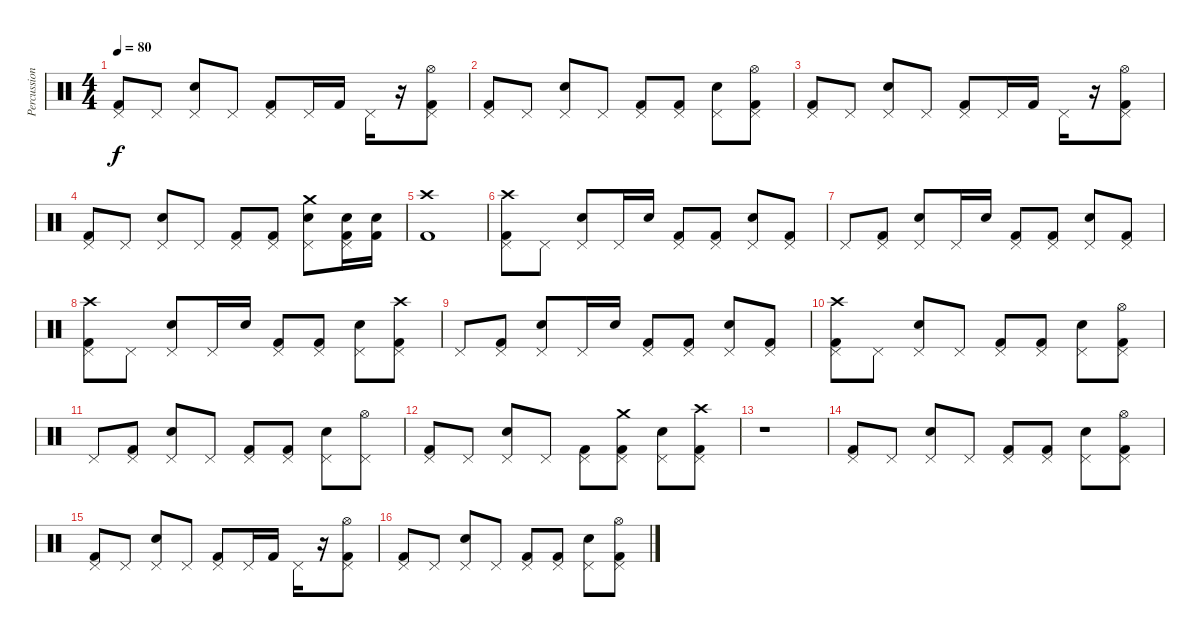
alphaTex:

\track ("Percussion" "Percussion") {instrument percussion}
\staff {score}
\articulation defaults
\ts (4 4)
\tempo 80
\clef neutral
\ks c
("Pedal Hi-Hat (hit)" "Kick (hit) 2").8{dy f} "Pedal Hi-Hat (hit)".8 ("Pedal Hi-Hat (hit)" "Electric Snare (hit)").8 "Pedal Hi-Hat (hit)".8 ("Pedal Hi-Hat (hit)" "Kick (hit) 2").8 "Pedal Hi-Hat (hit)".16 "Kick (hit) 2".16 "Pedal Hi-Hat (hit)".16 r.16 ("Pedal Hi-Hat (hit)" "Hi-Hat (open)" "Kick (hit) 2").8 |
("Pedal Hi-Hat (hit)" "Kick (hit) 2").8 "Pedal Hi-Hat (hit)".8 ("Pedal Hi-Hat (hit)" "Electric Snare (hit)").8 "Pedal Hi-Hat (hit)".8 ("Pedal Hi-Hat (hit)" "Kick (hit) 2").8 ("Pedal Hi-Hat (hit)" "Kick (hit) 2").8 ("Pedal Hi-Hat (hit)" "Electric Snare (hit)").8 ("Pedal Hi-Hat (hit)" "Hi-Hat (open)" "Kick (hit) 2").8 |
("Pedal Hi-Hat (hit)" "Kick (hit) 2").8 "Pedal Hi-Hat (hit)".8 ("Pedal Hi-Hat (hit)" "Electric Snare (hit)").8 "Pedal Hi-Hat (hit)".8 ("Pedal Hi-Hat (hit)" "Kick (hit) 2").8 "Pedal Hi-Hat (hit)".16 "Kick (hit) 2".16 "Pedal Hi-Hat (hit)".16 r.16 ("Pedal Hi-Hat (hit)" "Hi-Hat (open)" "Kick (hit) 2").8 |
("Pedal Hi-Hat (hit)" "Kick (hit) 2").8 "Pedal Hi-Hat (hit)".8 ("Pedal Hi-Hat (hit)" "Electric Snare (hit)").8 "Pedal Hi-Hat (hit)".8 ("Pedal Hi-Hat (hit)" "Kick (hit) 2").8 ("Pedal Hi-Hat (hit)" "Kick (hit) 2").8 ("Pedal Hi-Hat (hit)" "Crash medium (hit)" "Electric Snare (hit)").8 ("Pedal Hi-Hat (hit)" "Electric Snare (hit)" "Kick (hit) 2").16 ("Electric Snare (hit)" "Kick (hit) 2").16 |
("Crash high (hit)" "Kick (hit) 2").1 |
("Pedal Hi-Hat (hit)" "Crash high (hit)" "Kick (hit) 2").8 "Pedal Hi-Hat (hit)".8 ("Pedal Hi-Hat (hit)" "Electric Snare (hit)").8 "Pedal Hi-Hat (hit)".16 "Electric Snare (hit)".16 ("Pedal Hi-Hat (hit)" "Kick (hit) 2").8 ("Pedal Hi-Hat (hit)" "Kick (hit) 2").8 ("Pedal Hi-Hat (hit)" "Electric Snare (hit)").8 ("Pedal Hi-Hat (hit)" "Kick (hit) 2").8 |
"Pedal Hi-Hat (hit)".8 ("Pedal Hi-Hat (hit)" "Kick (hit) 2").8 ("Pedal Hi-Hat (hit)" "Electric Snare (hit)").8 "Pedal Hi-Hat (hit)".16 "Electric Snare (hit)".16 ("Pedal Hi-Hat (hit)" "Kick (hit) 2").8 ("Pedal Hi-Hat (hit)" "Kick (hit) 2").8 ("Pedal Hi-Hat (hit)" "Electric Snare (hit)").8 ("Pedal Hi-Hat (hit)" "Kick (hit) 2").8 |
("Pedal Hi-Hat (hit)" "Crash high (hit)" "Kick (hit) 2").8 "Pedal Hi-Hat (hit)".8 ("Pedal Hi-Hat (hit)" "Electric Snare (hit)").8 "Pedal Hi-Hat (hit)".16 "Electric Snare (hit)".16 ("Pedal Hi-Hat (hit)" "Kick (hit) 2").8 ("Pedal Hi-Hat (hit)" "Kick (hit) 2").8 ("Pedal Hi-Hat (hit)" "Electric Snare (hit)").8 ("Pedal Hi-Hat (hit)" "Crash high (hit)" "Kick (hit) 2").8 |
"Pedal Hi-Hat (hit)".8 ("Pedal Hi-Hat (hit)" "Kick (hit) 2").8 ("Pedal Hi-Hat (hit)" "Electric Snare (hit)").8 "Pedal Hi-Hat (hit)".16 "Electric Snare (hit)".16 ("Pedal Hi-Hat (hit)" "Kick (hit) 2").8 ("Pedal Hi-Hat (hit)" "Kick (hit) 2").8 ("Pedal Hi-Hat (hit)" "Electric Snare (hit)").8 ("Pedal Hi-Hat (hit)" "Kick (hit) 2").8 |
("Pedal Hi-Hat (hit)" "Crash high (hit)" "Kick (hit) 2").8 "Pedal Hi-Hat (hit)".8 ("Pedal Hi-Hat (hit)" "Electric Snare (hit)").8 "Pedal Hi-Hat (hit)".8 ("Pedal Hi-Hat (hit)" "Kick (hit) 2").8 ("Pedal Hi-Hat (hit)" "Kick (hit) 2").8 ("Pedal Hi-Hat (hit)" "Electric Snare (hit)").8 ("Pedal Hi-Hat (hit)" "Hi-Hat (open)" "Kick (hit) 2").8 |
"Pedal Hi-Hat (hit)".8 ("Pedal Hi-Hat (hit)" "Kick (hit) 2").8 ("Pedal Hi-Hat (hit)" "Electric Snare (hit)").8 "Pedal Hi-Hat (hit)".8 ("Pedal Hi-Hat (hit)" "Kick (hit) 2").8 ("Pedal Hi-Hat (hit)" "Kick (hit) 2").8 ("Pedal Hi-Hat (hit)" "Electric Snare (hit)").8 ("Pedal Hi-Hat (hit)" "Hi-Hat (open)").8 |
("Pedal Hi-Hat (hit)" "Kick (hit) 2").8 "Pedal Hi-Hat (hit)".8 ("Pedal Hi-Hat (hit)" "Electric Snare (hit)").8 "Pedal Hi-Hat (hit)".8 ("Pedal Hi-Hat (hit)" "Kick (hit) 2").8 ("Pedal Hi-Hat (hit)" "Crash medium (hit)" "Kick (hit) 2").8 ("Pedal Hi-Hat (hit)" "Electric Snare (hit)").8 ("Pedal Hi-Hat (hit)" "Crash high (hit)" "Kick (hit) 2").8 |
r.1 |
("Pedal Hi-Hat (hit)" "Kick (hit) 2").8 "Pedal Hi-Hat (hit)".8 ("Pedal Hi-Hat (hit)" "Electric Snare (hit)").8 "Pedal Hi-Hat (hit)".8 ("Pedal Hi-Hat (hit)" "Kick (hit) 2").8 ("Pedal Hi-Hat (hit)" "Kick (hit) 2").8 ("Pedal Hi-Hat (hit)" "Electric Snare (hit)").8 ("Pedal Hi-Hat (hit)" "Hi-Hat (open)" "Kick (hit) 2").8 |
("Pedal Hi-Hat (hit)" "Kick (hit) 2").8 "Pedal Hi-Hat (hit)".8 ("Pedal Hi-Hat (hit)" "Electric Snare (hit)").8 "Pedal Hi-Hat (hit)".8 ("Pedal Hi-Hat (hit)" "Kick (hit) 2").8 "Pedal Hi-Hat (hit)".16 "Kick (hit) 2".16 "Pedal Hi-Hat (hit)".16 r.16 ("Pedal Hi-Hat (hit)" "Hi-Hat (open)" "Kick (hit) 2").8 |
("Pedal Hi-Hat (hit)" "Kick (hit) 2").8 "Pedal Hi-Hat (hit)".8 ("Pedal Hi-Hat (hit)" "Electric Snare (hit)").8 "Pedal Hi-Hat (hit)".8 ("Pedal Hi-Hat (hit)" "Kick (hit) 2").8 ("Pedal Hi-Hat (hit)" "Kick (hit) 2").8 ("Pedal Hi-Hat (hit)" "Electric Snare (hit)").8 ("Pedal Hi-Hat (hit)" "Hi-Hat (open)" "Kick (hit) 2").8
